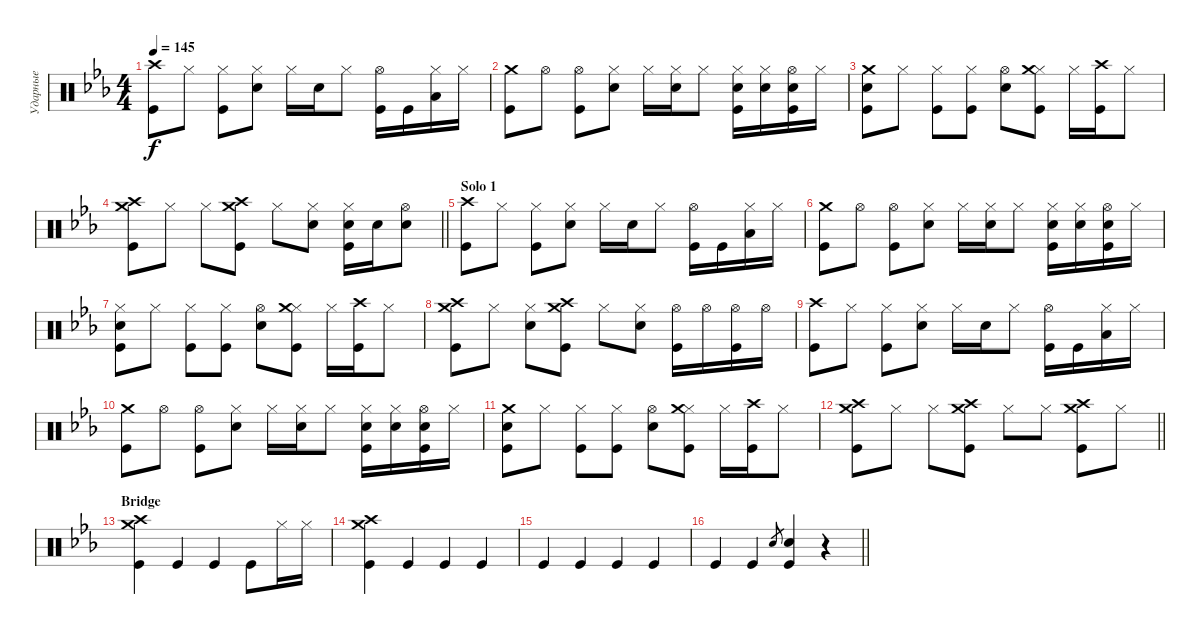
\track ("Ударные" "Ударные") {instrument percussion}
\staff {score}
\articulation defaults
\ts (4 4)
\tempo 145
\clef neutral
\ks cminor
("Crash high (hit)" "Kick (hit)").8{dy f} "Hi-Hat (closed)".8 ("Hi-Hat (closed)" "Kick (hit)").8 ("Hi-Hat (closed)" "Snare (hit) 2").8 "Hi-Hat (closed)".16 "Snare (hit) 2".16 "Hi-Hat (closed)".8 ("Hi-Hat (open)" "Kick (hit)").16 "Kick (hit)".16 ("Hi-Hat (closed)" "Low Floor Tom (hit)").16 "Hi-Hat (closed)".16 |
("Crash medium (hit)" "Kick (hit)").8 "Hi-Hat (open)".8 ("Hi-Hat (open)" "Kick (hit)").8 ("Hi-Hat (closed)" "Snare (hit) 2").8 "Hi-Hat (closed)".16 ("Hi-Hat (closed)" "Snare (hit) 2").16 "Hi-Hat (closed)".8 ("Hi-Hat (closed)" "Snare (hit) 2" "Kick (hit)").16 ("Hi-Hat (closed)" "Snare (hit) 2").16 ("Hi-Hat (open)" "Snare (hit) 2" "Kick (hit)").16 "Hi-Hat (closed)".16 |
("Crash medium (hit)" "Snare (hit) 2" "Kick (hit)").8 "Hi-Hat (closed)".8 ("Hi-Hat (closed)" "Kick (hit)").8 ("Hi-Hat (closed)" "Kick (hit)").8 ("Hi-Hat (open)" "Snare (hit) 2").8 ("Hi-Hat (closed)" "Crash medium (hit)" "Kick (hit)").8 "Hi-Hat (closed)".16 ("Crash high (hit)" "Kick (hit)").16 "Hi-Hat (closed)".8 |
\barLineRight lightlight
("Crash high (hit)" "Crash medium (hit)" "Kick (hit)").8 "Hi-Hat (closed)".8 "Hi-Hat (closed)".8 ("Crash high (hit)" "Crash medium (hit)" "Kick (hit)").8 "Hi-Hat (closed)".8 ("Hi-Hat (closed)" "Snare (hit) 2").8 ("Hi-Hat (closed)" "Snare (hit) 2" "Kick (hit)").16 "Snare (hit) 2".16 ("Hi-Hat (open)" "Snare (hit) 2").8 |
\section ("" "Solo 1")
("Crash high (hit)" "Kick (hit)").8 "Hi-Hat (closed)".8 ("Hi-Hat (closed)" "Kick (hit)").8 ("Hi-Hat (closed)" "Snare (hit) 2").8 "Hi-Hat (closed)".16 "Snare (hit) 2".16 "Hi-Hat (closed)".8 ("Hi-Hat (open)" "Kick (hit)").16 "Kick (hit)".16 ("Hi-Hat (closed)" "Low Floor Tom (hit)").16 "Hi-Hat (closed)".16 |
("Crash medium (hit)" "Kick (hit)").8 "Hi-Hat (open)".8 ("Hi-Hat (open)" "Kick (hit)").8 ("Hi-Hat (closed)" "Snare (hit) 2").8 "Hi-Hat (closed)".16 ("Hi-Hat (closed)" "Snare (hit) 2").16 "Hi-Hat (closed)".8 ("Hi-Hat (closed)" "Snare (hit) 2" "Kick (hit)").16 ("Hi-Hat (closed)" "Snare (hit) 2").16 ("Hi-Hat (open)" "Snare (hit) 2" "Kick (hit)").16 "Hi-Hat (closed)".16 |
("Hi-Hat (closed)" "Snare (hit) 2" "Kick (hit)").8 "Hi-Hat (closed)".8 ("Hi-Hat (closed)" "Kick (hit)").8 ("Hi-Hat (closed)" "Kick (hit)").8 ("Hi-Hat (open)" "Snare (hit) 2").8 ("Hi-Hat (closed)" "Crash medium (hit)" "Kick (hit)").8 "Hi-Hat (closed)".16 ("Crash high (hit)" "Kick (hit)").16 "Hi-Hat (closed)".8 |
("Crash medium (hit)" "Crash high (hit)" "Kick (hit)").8 "Hi-Hat (closed)".8 ("Hi-Hat (closed)" "Snare (hit) 2").8 ("Crash medium (hit)" "Crash high (hit)" "Kick (hit)").8 "Hi-Hat (closed)".8 ("Hi-Hat (closed)" "Snare (hit) 2").8 ("Hi-Hat (open)" "Kick (hit)").16 "Hi-Hat (open)".16 ("Hi-Hat (open)" "Kick (hit)").16 "Hi-Hat (open)".16 |
("Crash high (hit)" "Kick (hit)").8 "Hi-Hat (closed)".8 ("Hi-Hat (closed)" "Kick (hit)").8 ("Hi-Hat (closed)" "Snare (hit) 2").8 "Hi-Hat (closed)".16 "Snare (hit) 2".16 "Hi-Hat (closed)".8 ("Hi-Hat (open)" "Kick (hit)").16 "Kick (hit)".16 ("Hi-Hat (closed)" "Low Floor Tom (hit)").16 "Hi-Hat (closed)".16 |
("Crash medium (hit)" "Kick (hit)").8 "Hi-Hat (open)".8 ("Hi-Hat (open)" "Kick (hit)").8 ("Hi-Hat (closed)" "Snare (hit) 2").8 "Hi-Hat (closed)".16 ("Hi-Hat (closed)" "Snare (hit) 2").16 "Hi-Hat (closed)".8 ("Hi-Hat (closed)" "Snare (hit) 2" "Kick (hit)").16 ("Hi-Hat (closed)" "Snare (hit) 2").16 ("Hi-Hat (open)" "Snare (hit) 2" "Kick (hit)").16 "Hi-Hat (closed)".16 |
("Crash medium (hit)" "Snare (hit) 2" "Kick (hit)").8 "Hi-Hat (closed)".8 ("Hi-Hat (closed)" "Kick (hit)").8 ("Hi-Hat (closed)" "Kick (hit)").8 ("Hi-Hat (open)" "Snare (hit) 2").8 ("Hi-Hat (closed)" "Crash medium (hit)" "Kick (hit)").8 "Hi-Hat (closed)".16 ("Crash high (hit)" "Kick (hit)").16 "Hi-Hat (closed)".8 |
\barLineRight lightlight
("Crash high (hit)" "Crash medium (hit)" "Kick (hit)").8 "Hi-Hat (closed)".8 "Hi-Hat (closed)".8 ("Crash high (hit)" "Crash medium (hit)" "Kick (hit)").8 "Hi-Hat (closed)".8 "Hi-Hat (closed)".8 ("Crash high (hit)" "Crash medium (hit)" "Kick (hit)").8 "Hi-Hat (closed)".8 |
\section ("" "Bridge")
("Crash high (hit)" "Crash medium (hit)" "Kick (hit)").4 "Kick (hit)".4 "Kick (hit)".4 "Kick (hit)".8 "Hi-Hat (closed)".16 "Hi-Hat (closed)".16 |
("Crash high (hit)" "Crash medium (hit)" "Kick (hit)").4 "Kick (hit)".4 "Kick (hit)".4 "Kick (hit)".4 |
"Kick (hit)".4 "Kick (hit)".4 "Kick (hit)".4 "Kick (hit)".4 |
\barLineRight lightlight "Kick (hit)".4 "Kick (hit)".4 "Snare (hit) 2".8{gr}
("Snare (hit) 2" "Kick (hit)").4 r.4
